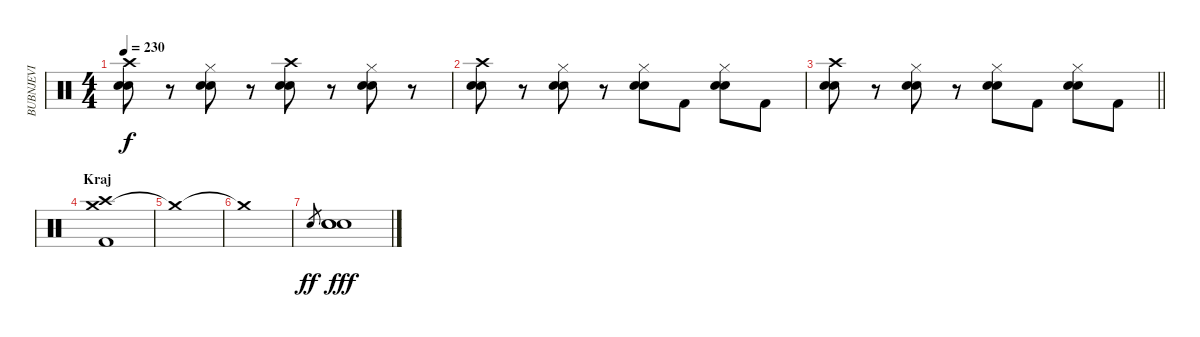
\track ("BUBNJEVI" "BUBNJEVI") {instrument percussion}
\staff {score}
\articulation defaults
\ts (4 4)
\tempo 230
\clef neutral
\ks c
("Crash high (hit)" "Snare (hit) 2" "Snare (hit) 2").8{dy f} r.8 ("Hi-Hat (closed)" "Snare (hit) 2" "Snare (hit) 2").8 r.8 ("Crash high (hit)" "Snare (hit) 2" "Snare (hit) 2").8 r.8 ("Hi-Hat (closed)" "Snare (hit) 2" "Snare (hit) 2").8 r.8 |
("Crash high (hit)" "Snare (hit) 2" "Snare (hit) 2").8 r.8 ("Hi-Hat (closed)" "Snare (hit) 2" "Snare (hit) 2").8 r.8 ("Hi-Hat (closed)" "Snare (hit) 2" "Snare (hit) 2").8 "Kick (hit) 2".8 ("Hi-Hat (closed)" "Snare (hit) 2" "Snare (hit) 2").8 "Kick (hit) 2".8 |
\barLineRight lightlight
("Crash high (hit)" "Snare (hit) 2" "Snare (hit) 2").8 r.8 ("Hi-Hat (closed)" "Snare (hit) 2" "Snare (hit) 2").8 r.8 ("Hi-Hat (closed)" "Snare (hit) 2" "Snare (hit) 2").8 "Kick (hit) 2".8 ("Hi-Hat (closed)" "Snare (hit) 2" "Snare (hit) 2").8 "Kick (hit) 2".8 |
\section ("" "Kraj")
("Crash medium (hit)" "Crash high (hit)" "Kick (hit) 2").1 |
"Crash medium (hit)"{t}.1 |
"Crash medium (hit)"{t}.1 |
"Snare (hit) 2".8{gr dy ff} ("Snare (hit) 2" "Snare (hit) 2" "Snare (hit) 2").1{dy fff}
